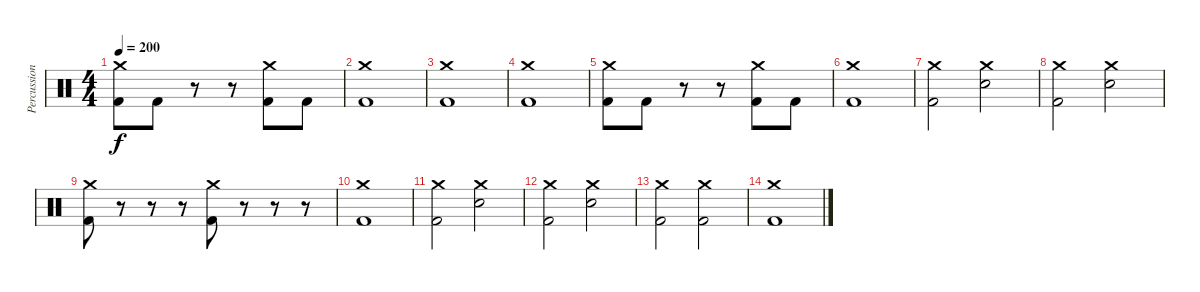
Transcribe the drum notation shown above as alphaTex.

\track ("Percussion" "Percussion") {instrument percussion}
\staff {score}
\articulation defaults
\ts (4 4)
\tempo 200
\clef neutral
\ks c
("Crash medium (hit)" "Kick (hit) 2").8{dy f} "Kick (hit) 2".8 r.8 r.8 ("Crash medium (hit)" "Kick (hit) 2").8 "Kick (hit) 2".8 |
("Crash medium (hit)" "Kick (hit) 2").1 |
("Crash medium (hit)" "Kick (hit) 2").1 |
("Crash medium (hit)" "Kick (hit) 2").1 |
("Crash medium (hit)" "Kick (hit) 2").8 "Kick (hit) 2".8 r.8 r.8 ("Crash medium (hit)" "Kick (hit) 2").8 "Kick (hit) 2".8 |
("Crash medium (hit)" "Kick (hit) 2").1 |
("Crash medium (hit)" "Kick (hit) 2").2 ("Crash medium (hit)" "Electric Snare (hit)").2 |
("Crash medium (hit)" "Kick (hit) 2").2 ("Crash medium (hit)" "Electric Snare (hit)").2 |
("Crash medium (hit)" "Kick (hit) 2").8 r.8 r.8 r.8 ("Crash medium (hit)" "Kick (hit) 2").8 r.8 r.8 r.8 |
("Crash medium (hit)" "Kick (hit) 2").1 |
("Crash medium (hit)" "Kick (hit) 2").2 ("Crash medium (hit)" "Electric Snare (hit)").2 |
("Crash medium (hit)" "Kick (hit) 2").2 ("Crash medium (hit)" "Electric Snare (hit)").2 |
("Crash medium (hit)" "Kick (hit) 2").2 ("Crash medium (hit)" "Kick (hit) 2").2 |
("Crash medium (hit)" "Kick (hit) 2").1
